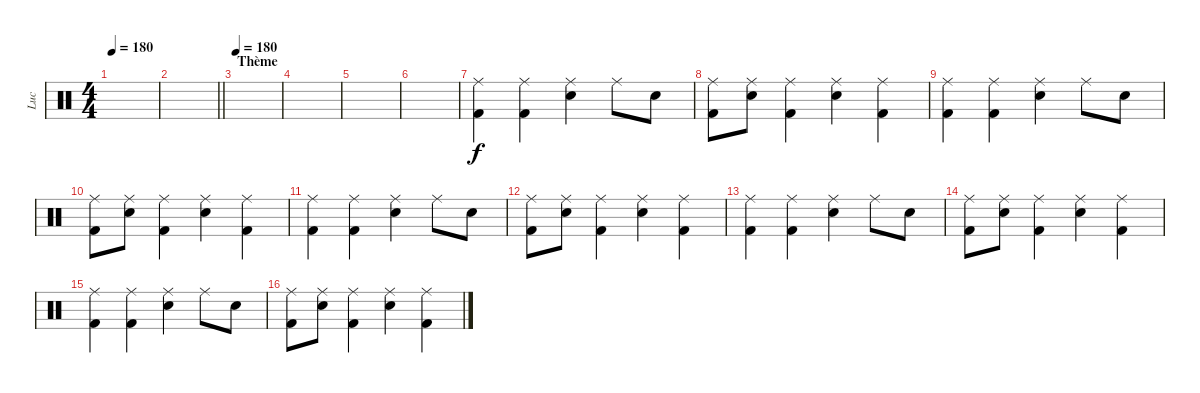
\track ("Luc" "Luc") {instrument percussion}
\staff {score}
\articulation defaults
\ts (4 4)
\tempo 180
\tempo 100
\tempo 180
\clef neutral
\ks c
|
\barLineRight lightlight
|
\section ("" "Thème")
\tempo 180
|
|
|
|
("Ride (middle)" "Kick (hit) 2").4 ("Ride (middle)" "Kick (hit) 2").4 ("Ride (middle)" "Snare (hit) 2").4 "Ride (middle)".8 "Snare (hit) 2".8 |
("Ride (middle)" "Kick (hit) 2").8 ("Ride (middle)" "Snare (hit) 2").8 ("Ride (middle)" "Kick (hit) 2").4 ("Ride (middle)" "Snare (hit) 2").4 ("Ride (middle)" "Kick (hit) 2").4 |
("Ride (middle)" "Kick (hit) 2").4 ("Ride (middle)" "Kick (hit) 2").4 ("Ride (middle)" "Snare (hit) 2").4 "Ride (middle)".8 "Snare (hit) 2".8 |
("Ride (middle)" "Kick (hit) 2").8 ("Ride (middle)" "Snare (hit) 2").8 ("Ride (middle)" "Kick (hit) 2").4 ("Ride (middle)" "Snare (hit) 2").4 ("Ride (middle)" "Kick (hit) 2").4 |
("Ride (middle)" "Kick (hit) 2").4 ("Ride (middle)" "Kick (hit) 2").4 ("Ride (middle)" "Snare (hit) 2").4 "Ride (middle)".8 "Snare (hit) 2".8 |
("Ride (middle)" "Kick (hit) 2").8 ("Ride (middle)" "Snare (hit) 2").8 ("Ride (middle)" "Kick (hit) 2").4 ("Ride (middle)" "Snare (hit) 2").4 ("Ride (middle)" "Kick (hit) 2").4 |
("Ride (middle)" "Kick (hit) 2").4 ("Ride (middle)" "Kick (hit) 2").4 ("Ride (middle)" "Snare (hit) 2").4 "Ride (middle)".8 "Snare (hit) 2".8 |
("Ride (middle)" "Kick (hit) 2").8 ("Ride (middle)" "Snare (hit) 2").8 ("Ride (middle)" "Kick (hit) 2").4 ("Ride (middle)" "Snare (hit) 2").4 ("Ride (middle)" "Kick (hit) 2").4 |
("Ride (middle)" "Kick (hit) 2").4 ("Ride (middle)" "Kick (hit) 2").4 ("Ride (middle)" "Snare (hit) 2").4 "Ride (middle)".8 "Snare (hit) 2".8 |
("Ride (middle)" "Kick (hit) 2").8 ("Ride (middle)" "Snare (hit) 2").8 ("Ride (middle)" "Kick (hit) 2").4 ("Ride (middle)" "Snare (hit) 2").4 ("Ride (middle)" "Kick (hit) 2").4
